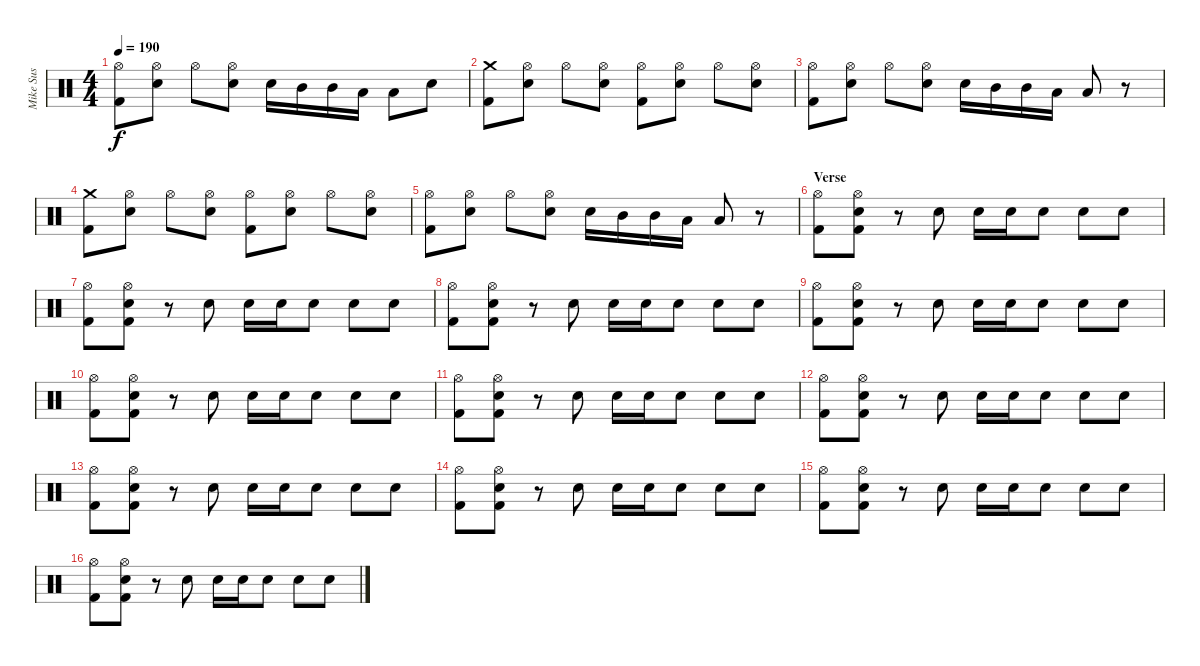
\track ("Mike Sus" "Mike Sus") {instrument percussion}
\staff {score}
\articulation defaults
\ts (4 4)
\tempo 190
\clef neutral
\ks c
("Hi-Hat (open)" "Kick (hit) 2").8{dy f} ("Hi-Hat (open)" "Electric Snare (hit)").8 "Hi-Hat (open)".8 ("Hi-Hat (open)" "Electric Snare (hit)").8 "Electric Snare (hit)".16 "Mid Tom (hit)".16 "Mid Tom (hit)".16 "Low Tom (hit)".16 "Low Tom (hit)".8 "Electric Snare (hit)".8 |
("Crash medium (hit)" "Kick (hit) 2").8 ("Hi-Hat (open)" "Electric Snare (hit)").8 "Hi-Hat (open)".8 ("Hi-Hat (open)" "Electric Snare (hit)").8 ("Hi-Hat (open)" "Kick (hit) 2").8 ("Hi-Hat (open)" "Electric Snare (hit)").8 "Hi-Hat (open)".8 ("Hi-Hat (open)" "Electric Snare (hit)").8 |
("Hi-Hat (open)" "Kick (hit) 2").8 ("Hi-Hat (open)" "Electric Snare (hit)").8 "Hi-Hat (open)".8 ("Hi-Hat (open)" "Electric Snare (hit)").8 "Electric Snare (hit)".16 "Mid Tom (hit)".16 "Mid Tom (hit)".16 "Low Tom (hit)".16 "Low Tom (hit)".8 r.8 |
("Crash medium (hit)" "Kick (hit) 2").8 ("Hi-Hat (open)" "Electric Snare (hit)").8 "Hi-Hat (open)".8 ("Hi-Hat (open)" "Electric Snare (hit)").8 ("Hi-Hat (open)" "Kick (hit) 2").8 ("Hi-Hat (open)" "Electric Snare (hit)").8 "Hi-Hat (open)".8 ("Hi-Hat (open)" "Electric Snare (hit)").8 |
("Hi-Hat (open)" "Kick (hit) 2").8 ("Hi-Hat (open)" "Electric Snare (hit)").8 "Hi-Hat (open)".8 ("Hi-Hat (open)" "Electric Snare (hit)").8 "Electric Snare (hit)".16 "Mid Tom (hit)".16 "Mid Tom (hit)".16 "Low Tom (hit)".16 "Low Tom (hit)".8 r.8 |
\section ("" "Verse")
("Hi-Hat (open)" "Kick (hit) 2").8 ("Hi-Hat (open)" "Electric Snare (hit)" "Kick (hit) 2").8 r.8 "Electric Snare (hit)".8 "Electric Snare (hit)".16 "Electric Snare (hit)".16 "Electric Snare (hit)".8 "Electric Snare (hit)".8 "Electric Snare (hit)".8 |
("Hi-Hat (open)" "Kick (hit) 2").8 ("Hi-Hat (open)" "Electric Snare (hit)" "Kick (hit) 2").8 r.8 "Electric Snare (hit)".8 "Electric Snare (hit)".16 "Electric Snare (hit)".16 "Electric Snare (hit)".8 "Electric Snare (hit)".8 "Electric Snare (hit)".8 |
("Hi-Hat (open)" "Kick (hit) 2").8 ("Hi-Hat (open)" "Electric Snare (hit)" "Kick (hit) 2").8 r.8 "Electric Snare (hit)".8 "Electric Snare (hit)".16 "Electric Snare (hit)".16 "Electric Snare (hit)".8 "Electric Snare (hit)".8 "Electric Snare (hit)".8 |
("Hi-Hat (open)" "Kick (hit) 2").8 ("Hi-Hat (open)" "Electric Snare (hit)" "Kick (hit) 2").8 r.8 "Electric Snare (hit)".8 "Electric Snare (hit)".16 "Electric Snare (hit)".16 "Electric Snare (hit)".8 "Electric Snare (hit)".8 "Electric Snare (hit)".8 |
("Hi-Hat (open)" "Kick (hit) 2").8 ("Hi-Hat (open)" "Electric Snare (hit)" "Kick (hit) 2").8 r.8 "Electric Snare (hit)".8 "Electric Snare (hit)".16 "Electric Snare (hit)".16 "Electric Snare (hit)".8 "Electric Snare (hit)".8 "Electric Snare (hit)".8 |
("Hi-Hat (open)" "Kick (hit) 2").8 ("Hi-Hat (open)" "Electric Snare (hit)" "Kick (hit) 2").8 r.8 "Electric Snare (hit)".8 "Electric Snare (hit)".16 "Electric Snare (hit)".16 "Electric Snare (hit)".8 "Electric Snare (hit)".8 "Electric Snare (hit)".8 |
("Hi-Hat (open)" "Kick (hit) 2").8 ("Hi-Hat (open)" "Electric Snare (hit)" "Kick (hit) 2").8 r.8 "Electric Snare (hit)".8 "Electric Snare (hit)".16 "Electric Snare (hit)".16 "Electric Snare (hit)".8 "Electric Snare (hit)".8 "Electric Snare (hit)".8 |
("Hi-Hat (open)" "Kick (hit) 2").8 ("Hi-Hat (open)" "Electric Snare (hit)" "Kick (hit) 2").8 r.8 "Electric Snare (hit)".8 "Electric Snare (hit)".16 "Electric Snare (hit)".16 "Electric Snare (hit)".8 "Electric Snare (hit)".8 "Electric Snare (hit)".8 |
("Hi-Hat (open)" "Kick (hit) 2").8 ("Hi-Hat (open)" "Electric Snare (hit)" "Kick (hit) 2").8 r.8 "Electric Snare (hit)".8 "Electric Snare (hit)".16 "Electric Snare (hit)".16 "Electric Snare (hit)".8 "Electric Snare (hit)".8 "Electric Snare (hit)".8 |
("Hi-Hat (open)" "Kick (hit) 2").8 ("Hi-Hat (open)" "Electric Snare (hit)" "Kick (hit) 2").8 r.8 "Electric Snare (hit)".8 "Electric Snare (hit)".16 "Electric Snare (hit)".16 "Electric Snare (hit)".8 "Electric Snare (hit)".8 "Electric Snare (hit)".8 |
("Hi-Hat (open)" "Kick (hit) 2").8 ("Hi-Hat (open)" "Electric Snare (hit)" "Kick (hit) 2").8 r.8 "Electric Snare (hit)".8 "Electric Snare (hit)".16 "Electric Snare (hit)".16 "Electric Snare (hit)".8 "Electric Snare (hit)".8 "Electric Snare (hit)".8
